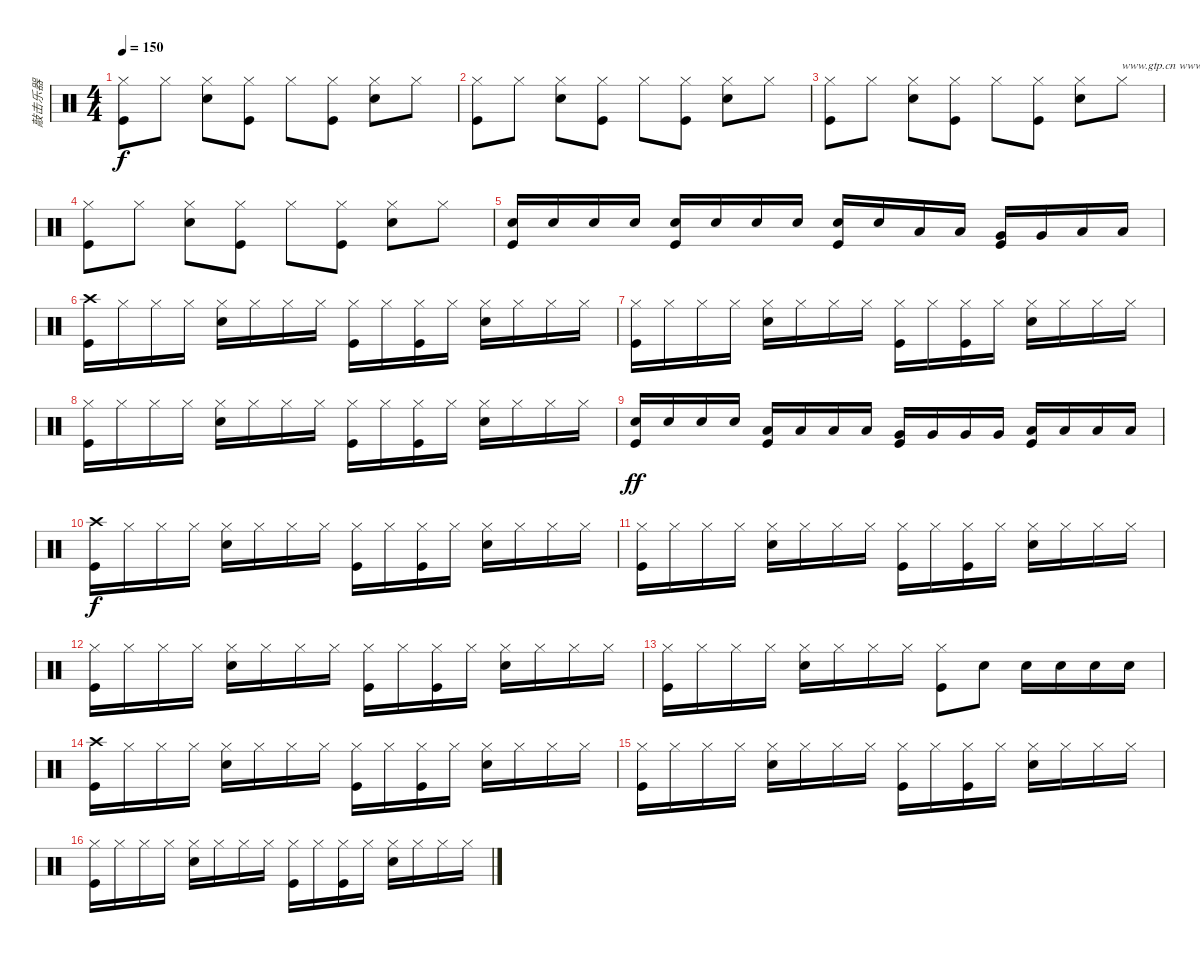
\track ("敲击乐器" "敲击乐器") {instrument percussion}
\staff {score}
\articulation defaults
\ts (4 4)
\tempo 150
\clef neutral
\ks c
("Hi-Hat (closed)" "Kick (hit)").8{dy f} "Hi-Hat (closed)".8 ("Hi-Hat (closed)" "Snare (hit) 2").8 ("Hi-Hat (closed)" "Kick (hit)").8 "Hi-Hat (closed)".8 ("Hi-Hat (closed)" "Kick (hit)").8 ("Hi-Hat (closed)" "Snare (hit) 2").8 "Hi-Hat (closed)".8 |
("Hi-Hat (closed)" "Kick (hit)").8 "Hi-Hat (closed)".8 ("Hi-Hat (closed)" "Snare (hit) 2").8 ("Hi-Hat (closed)" "Kick (hit)").8 "Hi-Hat (closed)".8 ("Hi-Hat (closed)" "Kick (hit)").8 ("Hi-Hat (closed)" "Snare (hit) 2").8 "Hi-Hat (closed)".8 |
("Hi-Hat (closed)" "Kick (hit)").8 "Hi-Hat (closed)".8 ("Hi-Hat (closed)" "Snare (hit) 2").8 ("Hi-Hat (closed)" "Kick (hit)").8 "Hi-Hat (closed)".8 ("Hi-Hat (closed)" "Kick (hit)").8 ("Hi-Hat (closed)" "Snare (hit) 2").8 "Hi-Hat (closed)".8{txt "www.gtp.cn www.51gtp.com联合为您提供优秀的GTP!"} |
("Hi-Hat (closed)" "Kick (hit)").8 "Hi-Hat (closed)".8 ("Hi-Hat (closed)" "Snare (hit) 2").8 ("Hi-Hat (closed)" "Kick (hit)").8 "Hi-Hat (closed)".8 ("Hi-Hat (closed)" "Kick (hit)").8 ("Hi-Hat (closed)" "Snare (hit) 2").8 "Hi-Hat (closed)".8 |
("Snare (hit) 2" "Kick (hit)").16 "Snare (hit) 2".16 "Snare (hit) 2".16 "Snare (hit) 2".16 ("Snare (hit) 2" "Kick (hit)").16 "Snare (hit) 2".16 "Snare (hit) 2".16 "Snare (hit) 2".16 ("Snare (hit) 2" "Kick (hit)").16 "Snare (hit) 2".16 "Low Tom (hit)".16 "Low Tom (hit)".16 ("Very Low Tom (hit)" "Kick (hit)").16 "Very Low Tom (hit)".16 "Low Floor Tom (hit)".16 "Low Floor Tom (hit)".16 |
("Crash high (hit)" "Kick (hit)").16 "Hi-Hat (closed)".16 "Hi-Hat (closed)".16 "Hi-Hat (closed)".16 ("Hi-Hat (closed)" "Snare (hit) 2").16 "Hi-Hat (closed)".16 "Hi-Hat (closed)".16 "Hi-Hat (closed)".16 ("Hi-Hat (closed)" "Kick (hit)").16 "Hi-Hat (closed)".16 ("Hi-Hat (closed)" "Kick (hit)").16 "Hi-Hat (closed)".16 ("Hi-Hat (closed)" "Snare (hit) 2").16 "Hi-Hat (closed)".16 "Hi-Hat (closed)".16 "Hi-Hat (closed)".16 |
("Hi-Hat (closed)" "Kick (hit)").16 "Hi-Hat (closed)".16 "Hi-Hat (closed)".16 "Hi-Hat (closed)".16 ("Hi-Hat (closed)" "Snare (hit) 2").16 "Hi-Hat (closed)".16 "Hi-Hat (closed)".16 "Hi-Hat (closed)".16 ("Hi-Hat (closed)" "Kick (hit)").16 "Hi-Hat (closed)".16 ("Hi-Hat (closed)" "Kick (hit)").16 "Hi-Hat (closed)".16 ("Hi-Hat (closed)" "Snare (hit) 2").16 "Hi-Hat (closed)".16 "Hi-Hat (closed)".16 "Hi-Hat (closed)".16 |
("Hi-Hat (closed)" "Kick (hit)").16 "Hi-Hat (closed)".16 "Hi-Hat (closed)".16 "Hi-Hat (closed)".16 ("Hi-Hat (closed)" "Snare (hit) 2").16 "Hi-Hat (closed)".16 "Hi-Hat (closed)".16 "Hi-Hat (closed)".16 ("Hi-Hat (closed)" "Kick (hit)").16 "Hi-Hat (closed)".16 ("Hi-Hat (closed)" "Kick (hit)").16 "Hi-Hat (closed)".16 ("Hi-Hat (closed)" "Snare (hit) 2").16 "Hi-Hat (closed)".16 "Hi-Hat (closed)".16 "Hi-Hat (closed)".16 |
("Snare (hit) 2" "Kick (hit)").16{dy ff} "Snare (hit) 2".16 "Snare (hit) 2".16 "Snare (hit) 2".16 ("Low Tom (hit)" "Kick (hit)").16 "Low Tom (hit)".16 "Low Tom (hit)".16 "Low Tom (hit)".16 ("Very Low Tom (hit)" "Kick (hit)").16 "Very Low Tom (hit)".16 "Very Low Tom (hit)".16 "Very Low Tom (hit)".16 ("Low Floor Tom (hit)" "Kick (hit)").16 "Low Floor Tom (hit)".16 "Low Floor Tom (hit)".16 "Low Floor Tom (hit)".16 |
("Crash high (hit)" "Kick (hit)").16{dy f} "Hi-Hat (closed)".16 "Hi-Hat (closed)".16 "Hi-Hat (closed)".16 ("Hi-Hat (closed)" "Snare (hit) 2").16 "Hi-Hat (closed)".16 "Hi-Hat (closed)".16 "Hi-Hat (closed)".16 ("Hi-Hat (closed)" "Kick (hit)").16 "Hi-Hat (closed)".16 ("Hi-Hat (closed)" "Kick (hit)").16 "Hi-Hat (closed)".16 ("Hi-Hat (closed)" "Snare (hit) 2").16 "Hi-Hat (closed)".16 "Hi-Hat (closed)".16 "Hi-Hat (closed)".16 |
("Hi-Hat (closed)" "Kick (hit)").16 "Hi-Hat (closed)".16 "Hi-Hat (closed)".16 "Hi-Hat (closed)".16 ("Hi-Hat (closed)" "Snare (hit) 2").16 "Hi-Hat (closed)".16 "Hi-Hat (closed)".16 "Hi-Hat (closed)".16 ("Hi-Hat (closed)" "Kick (hit)").16 "Hi-Hat (closed)".16 ("Hi-Hat (closed)" "Kick (hit)").16 "Hi-Hat (closed)".16 ("Hi-Hat (closed)" "Snare (hit) 2").16 "Hi-Hat (closed)".16 "Hi-Hat (closed)".16 "Hi-Hat (closed)".16 |
("Hi-Hat (closed)" "Kick (hit)").16 "Hi-Hat (closed)".16 "Hi-Hat (closed)".16 "Hi-Hat (closed)".16 ("Hi-Hat (closed)" "Snare (hit) 2").16 "Hi-Hat (closed)".16 "Hi-Hat (closed)".16 "Hi-Hat (closed)".16 ("Hi-Hat (closed)" "Kick (hit)").16 "Hi-Hat (closed)".16 ("Hi-Hat (closed)" "Kick (hit)").16 "Hi-Hat (closed)".16 ("Hi-Hat (closed)" "Snare (hit) 2").16 "Hi-Hat (closed)".16 "Hi-Hat (closed)".16 "Hi-Hat (closed)".16 |
("Hi-Hat (closed)" "Kick (hit)").16 "Hi-Hat (closed)".16 "Hi-Hat (closed)".16 "Hi-Hat (closed)".16 ("Hi-Hat (closed)" "Snare (hit) 2").16 "Hi-Hat (closed)".16 "Hi-Hat (closed)".16 "Hi-Hat (closed)".16 ("Hi-Hat (closed)" "Kick (hit)").8 "Snare (hit) 2".8 "Snare (hit) 2".16 "Snare (hit) 2".16 "Snare (hit) 2".16 "Snare (hit) 2".16 |
("Crash high (hit)" "Kick (hit)").16 "Hi-Hat (closed)".16 "Hi-Hat (closed)".16 "Hi-Hat (closed)".16 ("Hi-Hat (closed)" "Snare (hit) 2").16 "Hi-Hat (closed)".16 "Hi-Hat (closed)".16 "Hi-Hat (closed)".16 ("Hi-Hat (closed)" "Kick (hit)").16 "Hi-Hat (closed)".16 ("Hi-Hat (closed)" "Kick (hit)").16 "Hi-Hat (closed)".16 ("Hi-Hat (closed)" "Snare (hit) 2").16 "Hi-Hat (closed)".16 "Hi-Hat (closed)".16 "Hi-Hat (closed)".16 |
("Hi-Hat (closed)" "Kick (hit)").16 "Hi-Hat (closed)".16 "Hi-Hat (closed)".16 "Hi-Hat (closed)".16 ("Hi-Hat (closed)" "Snare (hit) 2").16 "Hi-Hat (closed)".16 "Hi-Hat (closed)".16 "Hi-Hat (closed)".16 ("Hi-Hat (closed)" "Kick (hit)").16 "Hi-Hat (closed)".16 ("Hi-Hat (closed)" "Kick (hit)").16 "Hi-Hat (closed)".16 ("Hi-Hat (closed)" "Snare (hit) 2").16 "Hi-Hat (closed)".16 "Hi-Hat (closed)".16 "Hi-Hat (closed)".16 |
("Hi-Hat (closed)" "Kick (hit)").16 "Hi-Hat (closed)".16 "Hi-Hat (closed)".16 "Hi-Hat (closed)".16 ("Hi-Hat (closed)" "Snare (hit) 2").16 "Hi-Hat (closed)".16 "Hi-Hat (closed)".16 "Hi-Hat (closed)".16 ("Hi-Hat (closed)" "Kick (hit)").16 "Hi-Hat (closed)".16 ("Hi-Hat (closed)" "Kick (hit)").16 "Hi-Hat (closed)".16 ("Hi-Hat (closed)" "Snare (hit) 2").16 "Hi-Hat (closed)".16 "Hi-Hat (closed)".16 "Hi-Hat (closed)".16
